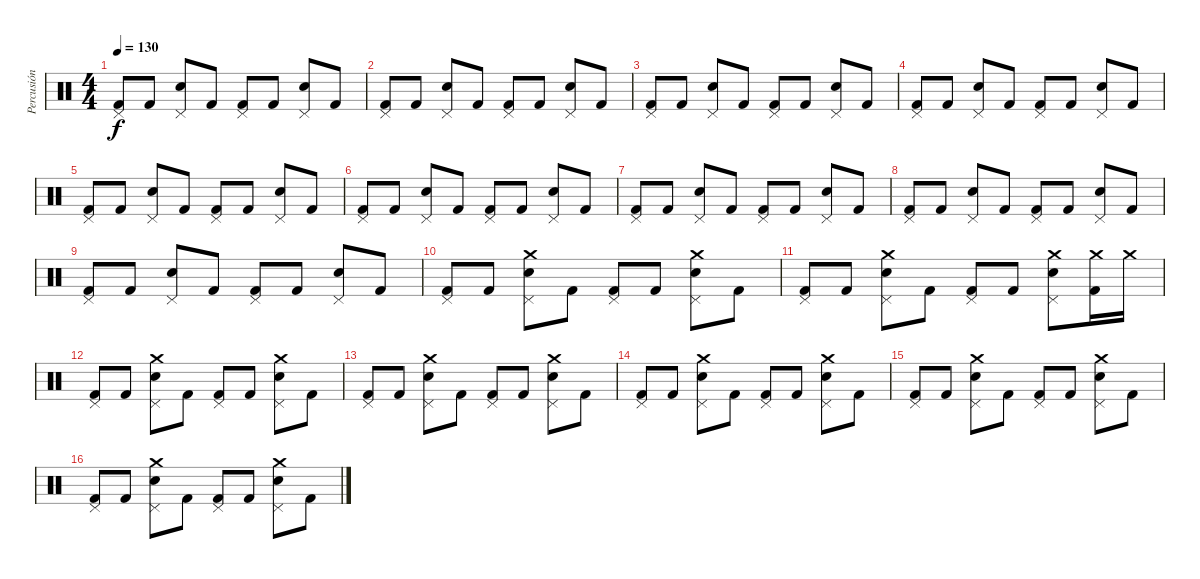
\track ("Percusión" "Percusión") {instrument percussion}
\staff {score}
\articulation defaults
\ts (4 4)
\tempo 130
\clef neutral
\ks c
("Kick (hit) 2" "Pedal Hi-Hat (hit)").8{dy f} "Kick (hit) 2".8 ("Electric Snare (hit)" "Pedal Hi-Hat (hit)").8 "Kick (hit) 2".8 ("Kick (hit) 2" "Pedal Hi-Hat (hit)").8 "Kick (hit) 2".8 ("Electric Snare (hit)" "Pedal Hi-Hat (hit)").8 "Kick (hit) 2".8 |
("Kick (hit) 2" "Pedal Hi-Hat (hit)").8 "Kick (hit) 2".8 ("Electric Snare (hit)" "Pedal Hi-Hat (hit)").8 "Kick (hit) 2".8 ("Kick (hit) 2" "Pedal Hi-Hat (hit)").8 "Kick (hit) 2".8 ("Electric Snare (hit)" "Pedal Hi-Hat (hit)").8 "Kick (hit) 2".8 |
("Kick (hit) 2" "Pedal Hi-Hat (hit)").8 "Kick (hit) 2".8 ("Electric Snare (hit)" "Pedal Hi-Hat (hit)").8 "Kick (hit) 2".8 ("Kick (hit) 2" "Pedal Hi-Hat (hit)").8 "Kick (hit) 2".8 ("Electric Snare (hit)" "Pedal Hi-Hat (hit)").8 "Kick (hit) 2".8 |
("Kick (hit) 2" "Pedal Hi-Hat (hit)").8 "Kick (hit) 2".8 ("Electric Snare (hit)" "Pedal Hi-Hat (hit)").8 "Kick (hit) 2".8 ("Kick (hit) 2" "Pedal Hi-Hat (hit)").8 "Kick (hit) 2".8 ("Electric Snare (hit)" "Pedal Hi-Hat (hit)").8 "Kick (hit) 2".8 |
("Kick (hit) 2" "Pedal Hi-Hat (hit)").8 "Kick (hit) 2".8 ("Electric Snare (hit)" "Pedal Hi-Hat (hit)").8 "Kick (hit) 2".8 ("Kick (hit) 2" "Pedal Hi-Hat (hit)").8 "Kick (hit) 2".8 ("Electric Snare (hit)" "Pedal Hi-Hat (hit)").8 "Kick (hit) 2".8 |
("Kick (hit) 2" "Pedal Hi-Hat (hit)").8 "Kick (hit) 2".8 ("Electric Snare (hit)" "Pedal Hi-Hat (hit)").8 "Kick (hit) 2".8 ("Kick (hit) 2" "Pedal Hi-Hat (hit)").8 "Kick (hit) 2".8 ("Electric Snare (hit)" "Pedal Hi-Hat (hit)").8 "Kick (hit) 2".8 |
("Kick (hit) 2" "Pedal Hi-Hat (hit)").8 "Kick (hit) 2".8 ("Electric Snare (hit)" "Pedal Hi-Hat (hit)").8 "Kick (hit) 2".8 ("Kick (hit) 2" "Pedal Hi-Hat (hit)").8 "Kick (hit) 2".8 ("Electric Snare (hit)" "Pedal Hi-Hat (hit)").8 "Kick (hit) 2".8 |
("Kick (hit) 2" "Pedal Hi-Hat (hit)").8 "Kick (hit) 2".8 ("Electric Snare (hit)" "Pedal Hi-Hat (hit)").8 "Kick (hit) 2".8 ("Kick (hit) 2" "Pedal Hi-Hat (hit)").8 "Kick (hit) 2".8 ("Electric Snare (hit)" "Pedal Hi-Hat (hit)").8 "Kick (hit) 2".8 |
("Kick (hit) 2" "Pedal Hi-Hat (hit)").8 "Kick (hit) 2".8 ("Electric Snare (hit)" "Pedal Hi-Hat (hit)").8 "Kick (hit) 2".8 ("Kick (hit) 2" "Pedal Hi-Hat (hit)").8 "Kick (hit) 2".8 ("Electric Snare (hit)" "Pedal Hi-Hat (hit)").8 "Kick (hit) 2".8 |
("Kick (hit) 2" "Pedal Hi-Hat (hit)").8 "Kick (hit) 2".8 ("Electric Snare (hit)" "Pedal Hi-Hat (hit)" "Crash medium (hit)").8 "Kick (hit) 2".8 ("Kick (hit) 2" "Pedal Hi-Hat (hit)").8 "Kick (hit) 2".8 ("Electric Snare (hit)" "Pedal Hi-Hat (hit)" "Crash medium (hit)").8 "Kick (hit) 2".8 |
("Kick (hit) 2" "Pedal Hi-Hat (hit)").8 "Kick (hit) 2".8 ("Electric Snare (hit)" "Pedal Hi-Hat (hit)" "Crash medium (hit)").8 "Kick (hit) 2".8 ("Kick (hit) 2" "Pedal Hi-Hat (hit)").8 "Kick (hit) 2".8 ("Electric Snare (hit)" "Pedal Hi-Hat (hit)" "Crash medium (hit)").8 ("Kick (hit) 2" "Crash medium (hit)").16 "Crash medium (hit)".16 |
("Kick (hit) 2" "Pedal Hi-Hat (hit)").8 "Kick (hit) 2".8 ("Electric Snare (hit)" "Pedal Hi-Hat (hit)" "Crash medium (hit)").8 "Kick (hit) 2".8 ("Kick (hit) 2" "Pedal Hi-Hat (hit)").8 "Kick (hit) 2".8 ("Electric Snare (hit)" "Pedal Hi-Hat (hit)" "Crash medium (hit)").8 "Kick (hit) 2".8 |
("Kick (hit) 2" "Pedal Hi-Hat (hit)").8 "Kick (hit) 2".8 ("Electric Snare (hit)" "Pedal Hi-Hat (hit)" "Crash medium (hit)").8 "Kick (hit) 2".8 ("Kick (hit) 2" "Pedal Hi-Hat (hit)").8 "Kick (hit) 2".8 ("Electric Snare (hit)" "Pedal Hi-Hat (hit)" "Crash medium (hit)").8 "Kick (hit) 2".8 |
("Kick (hit) 2" "Pedal Hi-Hat (hit)").8 "Kick (hit) 2".8 ("Electric Snare (hit)" "Pedal Hi-Hat (hit)" "Crash medium (hit)").8 "Kick (hit) 2".8 ("Kick (hit) 2" "Pedal Hi-Hat (hit)").8 "Kick (hit) 2".8 ("Electric Snare (hit)" "Pedal Hi-Hat (hit)" "Crash medium (hit)").8 "Kick (hit) 2".8 |
("Kick (hit) 2" "Pedal Hi-Hat (hit)").8 "Kick (hit) 2".8 ("Electric Snare (hit)" "Pedal Hi-Hat (hit)" "Crash medium (hit)").8 "Kick (hit) 2".8 ("Kick (hit) 2" "Pedal Hi-Hat (hit)").8 "Kick (hit) 2".8 ("Electric Snare (hit)" "Pedal Hi-Hat (hit)" "Crash medium (hit)").8 "Kick (hit) 2".8 |
("Kick (hit) 2" "Pedal Hi-Hat (hit)").8 "Kick (hit) 2".8 ("Electric Snare (hit)" "Pedal Hi-Hat (hit)" "Crash medium (hit)").8 "Kick (hit) 2".8 ("Kick (hit) 2" "Pedal Hi-Hat (hit)").8 "Kick (hit) 2".8 ("Electric Snare (hit)" "Pedal Hi-Hat (hit)" "Crash medium (hit)").8 "Kick (hit) 2".8
